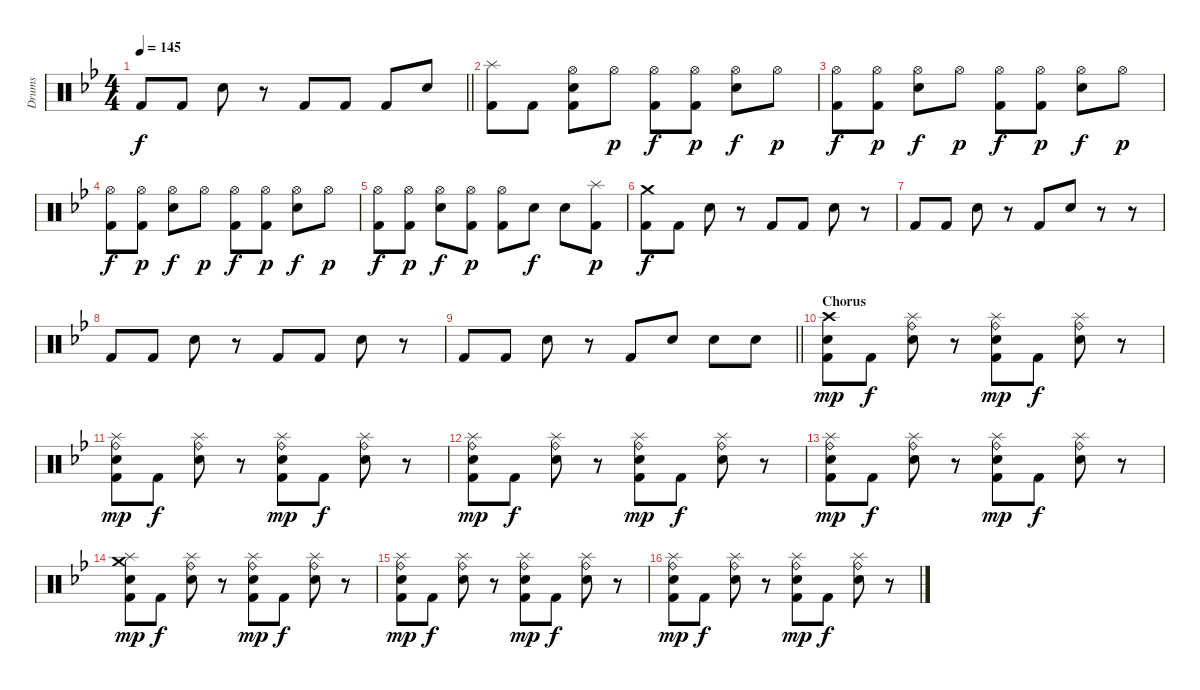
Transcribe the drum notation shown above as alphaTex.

\track ("Drums" "Drums") {instrument percussion}
\staff {score}
\articulation defaults
\ts (4 4)
\tempo 145
\clef neutral
\barLineRight lightlight
\ks bb "Kick (hit) 2".8{dy f} "Kick (hit) 2".8 "Electric Snare (hit)".8
r.8 "Kick (hit) 2".8 "Kick (hit) 2".8 "Kick (hit) 2".8 "Electric Snare (hit)".8 |
("Splash (hit)" "Kick (hit) 2").8 "Kick (hit) 2".8 ("Hi-Hat (open)" "Electric Snare (hit)" "Kick (hit) 2").8 "Hi-Hat (open)".8{dy p} ("Hi-Hat (open)" "Kick (hit) 2").8{dy f} ("Hi-Hat (open)" "Kick (hit) 2").8{dy p} ("Hi-Hat (open)" "Electric Snare (hit)").8{dy f} "Hi-Hat (open)".8{dy p} |
("Hi-Hat (open)" "Kick (hit) 2").8{dy f} ("Hi-Hat (open)" "Kick (hit) 2").8{dy p} ("Hi-Hat (open)" "Electric Snare (hit)").8{dy f} "Hi-Hat (open)".8{dy p} ("Hi-Hat (open)" "Kick (hit) 2").8{dy f} ("Hi-Hat (open)" "Kick (hit) 2").8{dy p} ("Hi-Hat (open)" "Electric Snare (hit)").8{dy f} "Hi-Hat (open)".8{dy p} |
("Hi-Hat (open)" "Kick (hit) 2").8{dy f} ("Hi-Hat (open)" "Kick (hit) 2").8{dy p} ("Hi-Hat (open)" "Electric Snare (hit)").8{dy f} "Hi-Hat (open)".8{dy p} ("Hi-Hat (open)" "Kick (hit) 2").8{dy f} ("Hi-Hat (open)" "Kick (hit) 2").8{dy p} ("Hi-Hat (open)" "Electric Snare (hit)").8{dy f} "Hi-Hat (open)".8{dy p} |
("Hi-Hat (open)" "Kick (hit) 2").8{dy f} ("Hi-Hat (open)" "Kick (hit) 2").8{dy p} ("Hi-Hat (open)" "Electric Snare (hit)").8{dy f} ("Hi-Hat (open)" "Kick (hit) 2").8{dy p} ("Hi-Hat (open)" "Kick (hit) 2").8 "Electric Snare (hit)".8{dy f} "Electric Snare (hit)".8 ("Splash (hit)" "Kick (hit) 2").8{dy p} |
("Crash medium (hit)" "Kick (hit) 2").8{dy f} "Kick (hit) 2".8 "Electric Snare (hit)".8 r.8 "Kick (hit) 2".8 "Kick (hit) 2".8 "Electric Snare (hit)".8 r.8 |
"Kick (hit) 2".8 "Kick (hit) 2".8 "Electric Snare (hit)".8 r.8 "Kick (hit) 2".8 "Electric Snare (hit)".8 r.8 r.8 |
"Kick (hit) 2".8 "Kick (hit) 2".8 "Electric Snare (hit)".8 r.8 "Kick (hit) 2".8 "Kick (hit) 2".8 "Electric Snare (hit)".8 r.8 |
\barLineRight lightlight "Kick (hit) 2".8 "Kick (hit) 2".8 "Electric Snare (hit)".8
r.8 "Kick (hit) 2".8 "Electric Snare (hit)".8 "Electric Snare (hit)".8 "Electric Snare (hit)".8 |
\section ("" "Chorus")
("Crash high (hit)" "Electric Snare (hit)" "Kick (hit) 2").8{dy mp} "Kick (hit) 2".8{dy f} ("Ride (bell)" "Splash (hit)" "Electric Snare (hit)").8 r.8 ("Ride (bell)" "Splash (hit)" "Electric Snare (hit)" "Kick (hit) 2").8{dy mp} "Kick (hit) 2".8{dy f} ("Ride (bell)" "Splash (hit)" "Electric Snare (hit)").8 r.8 |
("Ride (bell)" "Splash (hit)" "Electric Snare (hit)" "Kick (hit) 2").8{dy mp} "Kick (hit) 2".8{dy f} ("Ride (bell)" "Splash (hit)" "Electric Snare (hit)").8 r.8 ("Ride (bell)" "Splash (hit)" "Electric Snare (hit)" "Kick (hit) 2").8{dy mp} "Kick (hit) 2".8{dy f} ("Ride (bell)" "Splash (hit)" "Electric Snare (hit)").8 r.8 |
("Ride (bell)" "Splash (hit)" "Electric Snare (hit)" "Kick (hit) 2").8{dy mp} "Kick (hit) 2".8{dy f} ("Ride (bell)" "Splash (hit)" "Electric Snare (hit)").8 r.8 ("Ride (bell)" "Splash (hit)" "Electric Snare (hit)" "Kick (hit) 2").8{dy mp} "Kick (hit) 2".8{dy f} ("Ride (bell)" "Splash (hit)" "Electric Snare (hit)").8 r.8 |
("Ride (bell)" "Splash (hit)" "Electric Snare (hit)" "Kick (hit) 2").8{dy mp} "Kick (hit) 2".8{dy f} ("Ride (bell)" "Splash (hit)" "Electric Snare (hit)").8 r.8 ("Ride (bell)" "Splash (hit)" "Electric Snare (hit)" "Kick (hit) 2").8{dy mp} "Kick (hit) 2".8{dy f} ("Ride (bell)" "Splash (hit)" "Electric Snare (hit)").8 r.8 |
("Crash medium (hit)" "Splash (hit)" "Electric Snare (hit)" "Kick (hit) 2").8{dy mp} "Kick (hit) 2".8{dy f} ("Ride (bell)" "Splash (hit)" "Electric Snare (hit)").8 r.8 ("Ride (bell)" "Splash (hit)" "Electric Snare (hit)" "Kick (hit) 2").8{dy mp} "Kick (hit) 2".8{dy f} ("Ride (bell)" "Splash (hit)" "Electric Snare (hit)").8 r.8 |
("Ride (bell)" "Splash (hit)" "Electric Snare (hit)" "Kick (hit) 2").8{dy mp} "Kick (hit) 2".8{dy f} ("Ride (bell)" "Splash (hit)" "Electric Snare (hit)").8 r.8 ("Ride (bell)" "Splash (hit)" "Electric Snare (hit)" "Kick (hit) 2").8{dy mp} "Kick (hit) 2".8{dy f} ("Ride (bell)" "Splash (hit)" "Electric Snare (hit)").8 r.8 |
("Ride (bell)" "Splash (hit)" "Electric Snare (hit)" "Kick (hit) 2").8{dy mp} "Kick (hit) 2".8{dy f} ("Ride (bell)" "Splash (hit)" "Electric Snare (hit)").8 r.8 ("Ride (bell)" "Splash (hit)" "Electric Snare (hit)" "Kick (hit) 2").8{dy mp} "Kick (hit) 2".8{dy f} ("Ride (bell)" "Splash (hit)" "Electric Snare (hit)").8 r.8
